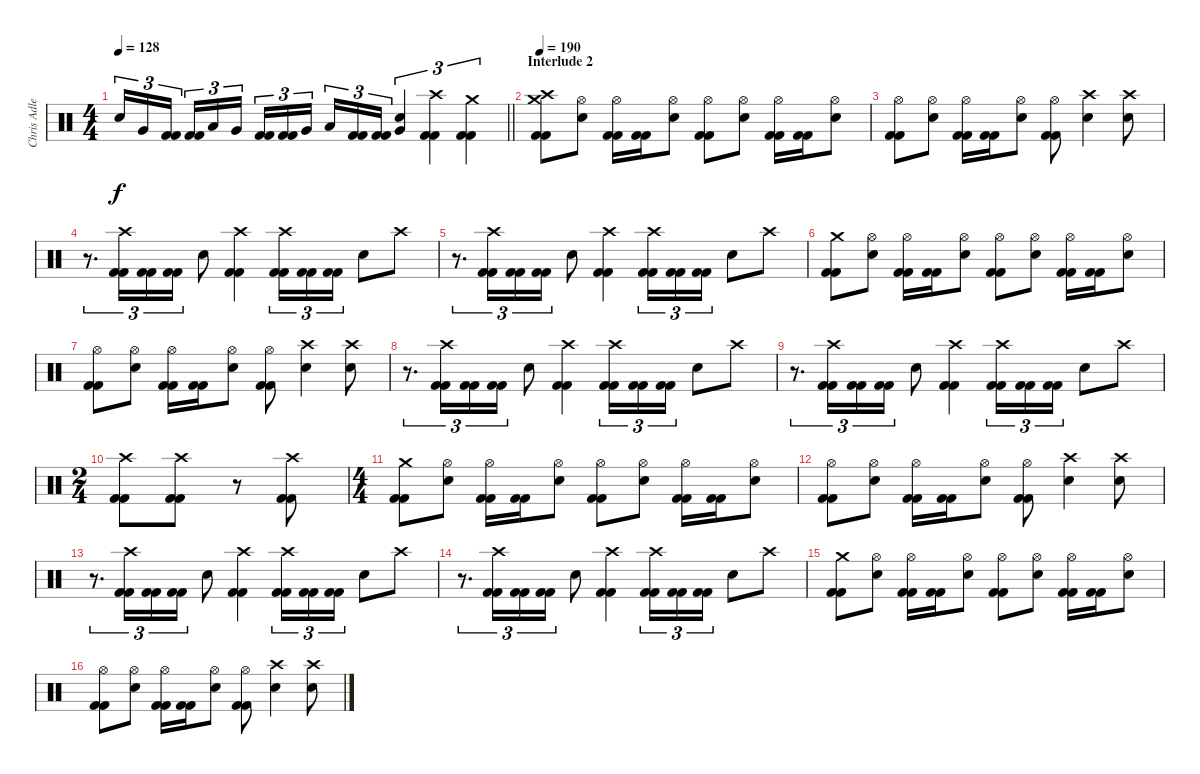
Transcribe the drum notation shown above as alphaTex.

\track ("Chris Adler" "Chris Adle") {instrument percussion}
\staff {score}
\articulation defaults
\ts (4 4)
\tempo 128
\clef neutral
\barLineRight lightlight
\ks c "Electric Snare (hit)".16{tu (3 2) dy f} "Very Low Tom (hit)".16{tu (3 2)}
("Kick (hit) 2" "Kick (hit) 2").16{tu (3 2) beam splitsecondary} ("Kick (hit) 2" "Kick (hit) 2").16{tu (3 2)} "Low Tom (hit)".16{tu (3 2)} "Very Low Tom (hit)".16{tu (3 2)} ("Kick (hit) 2" "Kick (hit) 2").16{tu (3 2)} ("Kick (hit) 2" "Kick (hit) 2").16{tu (3 2)} "Very Low Tom (hit)".16{tu (3 2) beam splitsecondary} "Low Floor Tom (hit)".16{tu (3 2)} ("Kick (hit) 2" "Kick (hit) 2").16{tu (3 2)} ("Kick (hit) 2" "Kick (hit) 2").16{tu (3 2)} ("Electric Snare (hit)" "Very Low Tom (hit)").4{tu (3 2)} ("Crash high (hit)" "Kick (hit) 2" "Kick (hit) 2").4{tu (3 2)} ("Crash medium (hit)" "Kick (hit) 2" "Kick (hit) 2").4{tu (3 2)} |
\section ("" "Interlude 2")
\tempo 190
("Crash medium (hit)" "Crash high (hit)" "Kick (hit) 2" "Kick (hit) 2").8 ("Hi-Hat (open)" "Electric Snare (hit)").8 ("Hi-Hat (open)" "Kick (hit) 2" "Kick (hit) 2").16 ("Kick (hit) 2" "Kick (hit) 2").16 ("Hi-Hat (open)" "Electric Snare (hit)").8 ("Hi-Hat (open)" "Kick (hit) 2" "Kick (hit) 2").8 ("Hi-Hat (open)" "Electric Snare (hit)").8 ("Hi-Hat (open)" "Kick (hit) 2" "Kick (hit) 2").16 ("Kick (hit) 2" "Kick (hit) 2").16 ("Hi-Hat (open)" "Electric Snare (hit)").8 |
("Hi-Hat (open)" "Kick (hit) 2" "Kick (hit) 2").8 ("Hi-Hat (open)" "Electric Snare (hit)").8 ("Hi-Hat (open)" "Kick (hit) 2" "Kick (hit) 2").16 ("Kick (hit) 2" "Kick (hit) 2").16 ("Hi-Hat (open)" "Electric Snare (hit)").8 ("Hi-Hat (open)" "Kick (hit) 2" "Kick (hit) 2").8 ("Crash high (hit)" "Electric Snare (hit)").4 ("Crash high (hit)" "Electric Snare (hit)").8 |
r.8{d tu (3 2)} ("Crash high (hit)" "Kick (hit) 2" "Kick (hit) 2").16{tu (3 2)} ("Kick (hit) 2" "Kick (hit) 2").16{tu (3 2)} ("Kick (hit) 2" "Kick (hit) 2").16{tu (3 2)} "Electric Snare (hit)".8 ("Crash high (hit)" "Kick (hit) 2" "Kick (hit) 2").4 ("Crash high (hit)" "Kick (hit) 2" "Kick (hit) 2").16{tu (3 2)} ("Kick (hit) 2" "Kick (hit) 2").16{tu (3 2)} ("Kick (hit) 2" "Kick (hit) 2").16{tu (3 2)} "Electric Snare (hit)".8 "Crash high (hit)".8 |
r.8{d tu (3 2)} ("Crash high (hit)" "Kick (hit) 2" "Kick (hit) 2").16{tu (3 2)} ("Kick (hit) 2" "Kick (hit) 2").16{tu (3 2)} ("Kick (hit) 2" "Kick (hit) 2").16{tu (3 2)} "Electric Snare (hit)".8 ("Crash high (hit)" "Kick (hit) 2" "Kick (hit) 2").4 ("Crash high (hit)" "Kick (hit) 2" "Kick (hit) 2").16{tu (3 2)} ("Kick (hit) 2" "Kick (hit) 2").16{tu (3 2)} ("Kick (hit) 2" "Kick (hit) 2").16{tu (3 2)} "Electric Snare (hit)".8 "Crash high (hit)".8 |
("Crash medium (hit)" "Kick (hit) 2" "Kick (hit) 2").8 ("Hi-Hat (open)" "Electric Snare (hit)").8 ("Hi-Hat (open)" "Kick (hit) 2" "Kick (hit) 2").16 ("Kick (hit) 2" "Kick (hit) 2").16 ("Hi-Hat (open)" "Electric Snare (hit)").8 ("Hi-Hat (open)" "Kick (hit) 2" "Kick (hit) 2").8 ("Hi-Hat (open)" "Electric Snare (hit)").8 ("Hi-Hat (open)" "Kick (hit) 2" "Kick (hit) 2").16 ("Kick (hit) 2" "Kick (hit) 2").16 ("Hi-Hat (open)" "Electric Snare (hit)").8 |
("Hi-Hat (open)" "Kick (hit) 2" "Kick (hit) 2").8 ("Hi-Hat (open)" "Electric Snare (hit)").8 ("Hi-Hat (open)" "Kick (hit) 2" "Kick (hit) 2").16 ("Kick (hit) 2" "Kick (hit) 2").16 ("Hi-Hat (open)" "Electric Snare (hit)").8 ("Hi-Hat (open)" "Kick (hit) 2" "Kick (hit) 2").8 ("Crash high (hit)" "Electric Snare (hit)").4 ("Crash high (hit)" "Electric Snare (hit)").8 |
r.8{d tu (3 2)} ("Crash high (hit)" "Kick (hit) 2" "Kick (hit) 2").16{tu (3 2)} ("Kick (hit) 2" "Kick (hit) 2").16{tu (3 2)} ("Kick (hit) 2" "Kick (hit) 2").16{tu (3 2)} "Electric Snare (hit)".8 ("Crash high (hit)" "Kick (hit) 2" "Kick (hit) 2").4 ("Crash high (hit)" "Kick (hit) 2" "Kick (hit) 2").16{tu (3 2)} ("Kick (hit) 2" "Kick (hit) 2").16{tu (3 2)} ("Kick (hit) 2" "Kick (hit) 2").16{tu (3 2)} "Electric Snare (hit)".8 "Crash high (hit)".8 |
r.8{d tu (3 2)} ("Crash high (hit)" "Kick (hit) 2" "Kick (hit) 2").16{tu (3 2)} ("Kick (hit) 2" "Kick (hit) 2").16{tu (3 2)} ("Kick (hit) 2" "Kick (hit) 2").16{tu (3 2)} "Electric Snare (hit)".8 ("Crash high (hit)" "Kick (hit) 2" "Kick (hit) 2").4 ("Crash high (hit)" "Kick (hit) 2" "Kick (hit) 2").16{tu (3 2)} ("Kick (hit) 2" "Kick (hit) 2").16{tu (3 2)} ("Kick (hit) 2" "Kick (hit) 2").16{tu (3 2)} "Electric Snare (hit)".8 "Crash high (hit)".8 |
\ts (2 4)
("Crash high (hit)" "Kick (hit) 2" "Kick (hit) 2").8 ("Crash high (hit)" "Kick (hit) 2" "Kick (hit) 2").8 r.8{volume 0} ("Crash high (hit)" "Kick (hit) 2" "Kick (hit) 2").8{volume 13} |
\ts (4 4)
("Crash medium (hit)" "Kick (hit) 2" "Kick (hit) 2").8 ("Hi-Hat (open)" "Electric Snare (hit)").8 ("Hi-Hat (open)" "Kick (hit) 2" "Kick (hit) 2").16 ("Kick (hit) 2" "Kick (hit) 2").16 ("Hi-Hat (open)" "Electric Snare (hit)").8 ("Hi-Hat (open)" "Kick (hit) 2" "Kick (hit) 2").8 ("Hi-Hat (open)" "Electric Snare (hit)").8 ("Hi-Hat (open)" "Kick (hit) 2" "Kick (hit) 2").16 ("Kick (hit) 2" "Kick (hit) 2").16 ("Hi-Hat (open)" "Electric Snare (hit)").8 |
("Hi-Hat (open)" "Kick (hit) 2" "Kick (hit) 2").8 ("Hi-Hat (open)" "Electric Snare (hit)").8 ("Hi-Hat (open)" "Kick (hit) 2" "Kick (hit) 2").16 ("Kick (hit) 2" "Kick (hit) 2").16 ("Hi-Hat (open)" "Electric Snare (hit)").8 ("Hi-Hat (open)" "Kick (hit) 2" "Kick (hit) 2").8 ("Crash high (hit)" "Electric Snare (hit)").4 ("Crash high (hit)" "Electric Snare (hit)").8 |
r.8{d tu (3 2)} ("Crash high (hit)" "Kick (hit) 2" "Kick (hit) 2").16{tu (3 2)} ("Kick (hit) 2" "Kick (hit) 2").16{tu (3 2)} ("Kick (hit) 2" "Kick (hit) 2").16{tu (3 2)} "Electric Snare (hit)".8 ("Crash high (hit)" "Kick (hit) 2" "Kick (hit) 2").4 ("Crash high (hit)" "Kick (hit) 2" "Kick (hit) 2").16{tu (3 2)} ("Kick (hit) 2" "Kick (hit) 2").16{tu (3 2)} ("Kick (hit) 2" "Kick (hit) 2").16{tu (3 2)} "Electric Snare (hit)".8 "Crash high (hit)".8 |
r.8{d tu (3 2)} ("Crash high (hit)" "Kick (hit) 2" "Kick (hit) 2").16{tu (3 2)} ("Kick (hit) 2" "Kick (hit) 2").16{tu (3 2)} ("Kick (hit) 2" "Kick (hit) 2").16{tu (3 2)} "Electric Snare (hit)".8 ("Crash high (hit)" "Kick (hit) 2" "Kick (hit) 2").4 ("Crash high (hit)" "Kick (hit) 2" "Kick (hit) 2").16{tu (3 2)} ("Kick (hit) 2" "Kick (hit) 2").16{tu (3 2)} ("Kick (hit) 2" "Kick (hit) 2").16{tu (3 2)} "Electric Snare (hit)".8 "Crash high (hit)".8 |
("Crash medium (hit)" "Kick (hit) 2" "Kick (hit) 2").8 ("Hi-Hat (open)" "Electric Snare (hit)").8 ("Hi-Hat (open)" "Kick (hit) 2" "Kick (hit) 2").16 ("Kick (hit) 2" "Kick (hit) 2").16 ("Hi-Hat (open)" "Electric Snare (hit)").8 ("Hi-Hat (open)" "Kick (hit) 2" "Kick (hit) 2").8 ("Hi-Hat (open)" "Electric Snare (hit)").8 ("Hi-Hat (open)" "Kick (hit) 2" "Kick (hit) 2").16 ("Kick (hit) 2" "Kick (hit) 2").16 ("Hi-Hat (open)" "Electric Snare (hit)").8 |
("Hi-Hat (open)" "Kick (hit) 2" "Kick (hit) 2").8 ("Hi-Hat (open)" "Electric Snare (hit)").8 ("Hi-Hat (open)" "Kick (hit) 2" "Kick (hit) 2").16 ("Kick (hit) 2" "Kick (hit) 2").16 ("Hi-Hat (open)" "Electric Snare (hit)").8 ("Hi-Hat (open)" "Kick (hit) 2" "Kick (hit) 2").8 ("Crash high (hit)" "Electric Snare (hit)").4 ("Crash high (hit)" "Electric Snare (hit)").8
